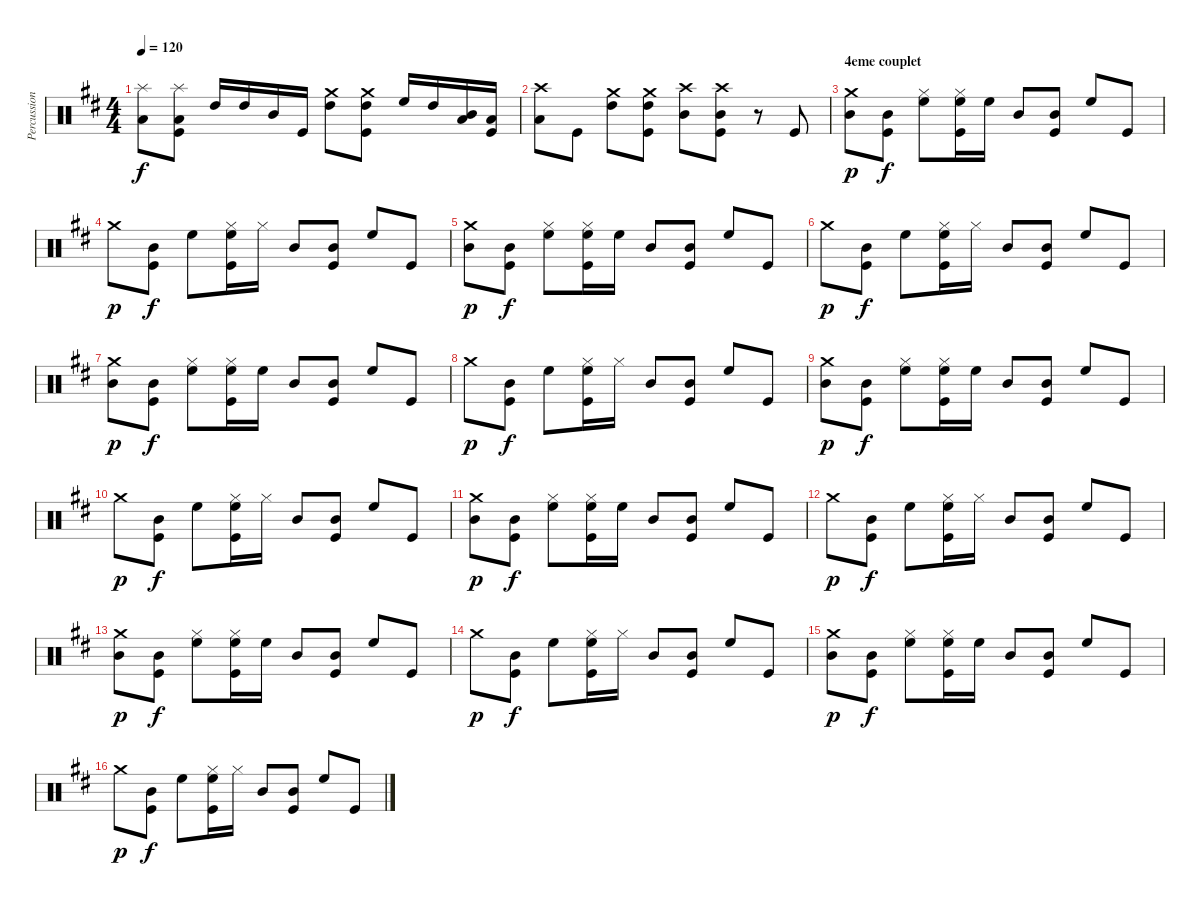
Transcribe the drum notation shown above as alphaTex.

\track ("Percussions" "Percussion") {instrument percussion}
\staff {score}
\articulation defaults
\ts (4 4)
\tempo 120
\clef neutral
\ks d
("Splash (hit)" "Low Floor Tom (hit)").8{dy f} ("Splash (hit)" "Low Tom (hit)" "Kick (hit)").8 "High Tom (hit)".16 "High Tom (hit)".16 "Mid Tom (hit)".16 "Kick (hit)".16 ("Crash medium (hit)" "High Tom (hit)").8 ("Crash medium (hit)" "High Tom (hit)" "Kick (hit)").8 "High Floor Tom (hit)".16 "High Tom (hit)".16 ("Low Floor Tom (hit)" "Mid Tom (hit)").16 ("Low Tom (hit)" "Kick (hit)").16 |
("Crash high (hit)" "Low Floor Tom (hit)").8 "Kick (hit)".8 ("Crash medium (hit)" "High Tom (hit)").8 ("Crash medium (hit)" "High Tom (hit)" "Kick (hit)").8 ("Crash high (hit)" "Mid Tom (hit)").8 ("Crash high (hit)" "Mid Tom (hit)" "Kick (hit)").8 r.8 "Kick (hit)".8 |
\section ("" "4eme couplet")
("Crash medium (hit)" "Mid Tom (hit)").8{dy p} ("Mid Tom (hit)" "Kick (hit)").8{dy f} ("Hi-Hat (closed)" "High Floor Tom (hit)").8 ("Hi-Hat (closed)" "High Floor Tom (hit)" "Kick (hit)").16 "High Floor Tom (hit)".16 "Mid Tom (hit)".8 ("Mid Tom (hit)" "Kick (hit)").8 "High Floor Tom (hit)".8 "Kick (hit)".8 |
"Crash medium (hit)".8{dy p} ("Mid Tom (hit)" "Kick (hit)").8{dy f} "High Floor Tom (hit)".8 ("Hi-Hat (closed)" "High Floor Tom (hit)" "Kick (hit)").16 "Hi-Hat (closed)".16 "Mid Tom (hit)".8 ("Mid Tom (hit)" "Kick (hit)").8 "High Floor Tom (hit)".8 "Kick (hit)".8 |
("Crash medium (hit)" "Mid Tom (hit)").8{dy p} ("Mid Tom (hit)" "Kick (hit)").8{dy f} ("Hi-Hat (closed)" "High Floor Tom (hit)").8 ("Hi-Hat (closed)" "High Floor Tom (hit)" "Kick (hit)").16 "High Floor Tom (hit)".16 "Mid Tom (hit)".8 ("Mid Tom (hit)" "Kick (hit)").8 "High Floor Tom (hit)".8 "Kick (hit)".8 |
"Crash medium (hit)".8{dy p} ("Mid Tom (hit)" "Kick (hit)").8{dy f} "High Floor Tom (hit)".8 ("Hi-Hat (closed)" "High Floor Tom (hit)" "Kick (hit)").16 "Hi-Hat (closed)".16 "Mid Tom (hit)".8 ("Mid Tom (hit)" "Kick (hit)").8 "High Floor Tom (hit)".8 "Kick (hit)".8 |
("Crash medium (hit)" "Mid Tom (hit)").8{dy p} ("Mid Tom (hit)" "Kick (hit)").8{dy f} ("Hi-Hat (closed)" "High Floor Tom (hit)").8 ("Hi-Hat (closed)" "High Floor Tom (hit)" "Kick (hit)").16 "High Floor Tom (hit)".16 "Mid Tom (hit)".8 ("Mid Tom (hit)" "Kick (hit)").8 "High Floor Tom (hit)".8 "Kick (hit)".8 |
"Crash medium (hit)".8{dy p} ("Mid Tom (hit)" "Kick (hit)").8{dy f} "High Floor Tom (hit)".8 ("Hi-Hat (closed)" "High Floor Tom (hit)" "Kick (hit)").16 "Hi-Hat (closed)".16 "Mid Tom (hit)".8 ("Mid Tom (hit)" "Kick (hit)").8 "High Floor Tom (hit)".8 "Kick (hit)".8 |
("Crash medium (hit)" "Mid Tom (hit)").8{dy p} ("Mid Tom (hit)" "Kick (hit)").8{dy f} ("Hi-Hat (closed)" "High Floor Tom (hit)").8 ("Hi-Hat (closed)" "High Floor Tom (hit)" "Kick (hit)").16 "High Floor Tom (hit)".16 "Mid Tom (hit)".8 ("Mid Tom (hit)" "Kick (hit)").8 "High Floor Tom (hit)".8 "Kick (hit)".8 |
"Crash medium (hit)".8{dy p} ("Mid Tom (hit)" "Kick (hit)").8{dy f} "High Floor Tom (hit)".8 ("Hi-Hat (closed)" "High Floor Tom (hit)" "Kick (hit)").16 "Hi-Hat (closed)".16 "Mid Tom (hit)".8 ("Mid Tom (hit)" "Kick (hit)").8 "High Floor Tom (hit)".8 "Kick (hit)".8 |
("Crash medium (hit)" "Mid Tom (hit)").8{dy p} ("Mid Tom (hit)" "Kick (hit)").8{dy f} ("Hi-Hat (closed)" "High Floor Tom (hit)").8 ("Hi-Hat (closed)" "High Floor Tom (hit)" "Kick (hit)").16 "High Floor Tom (hit)".16 "Mid Tom (hit)".8 ("Mid Tom (hit)" "Kick (hit)").8 "High Floor Tom (hit)".8 "Kick (hit)".8 |
"Crash medium (hit)".8{dy p} ("Mid Tom (hit)" "Kick (hit)").8{dy f} "High Floor Tom (hit)".8 ("Hi-Hat (closed)" "High Floor Tom (hit)" "Kick (hit)").16 "Hi-Hat (closed)".16 "Mid Tom (hit)".8 ("Mid Tom (hit)" "Kick (hit)").8 "High Floor Tom (hit)".8 "Kick (hit)".8 |
("Crash medium (hit)" "Mid Tom (hit)").8{dy p} ("Mid Tom (hit)" "Kick (hit)").8{dy f} ("Hi-Hat (closed)" "High Floor Tom (hit)").8 ("Hi-Hat (closed)" "High Floor Tom (hit)" "Kick (hit)").16 "High Floor Tom (hit)".16 "Mid Tom (hit)".8 ("Mid Tom (hit)" "Kick (hit)").8 "High Floor Tom (hit)".8 "Kick (hit)".8 |
"Crash medium (hit)".8{dy p} ("Mid Tom (hit)" "Kick (hit)").8{dy f} "High Floor Tom (hit)".8 ("Hi-Hat (closed)" "High Floor Tom (hit)" "Kick (hit)").16 "Hi-Hat (closed)".16 "Mid Tom (hit)".8 ("Mid Tom (hit)" "Kick (hit)").8 "High Floor Tom (hit)".8 "Kick (hit)".8 |
("Crash medium (hit)" "Mid Tom (hit)").8{dy p} ("Mid Tom (hit)" "Kick (hit)").8{dy f} ("Hi-Hat (closed)" "High Floor Tom (hit)").8 ("Hi-Hat (closed)" "High Floor Tom (hit)" "Kick (hit)").16 "High Floor Tom (hit)".16 "Mid Tom (hit)".8 ("Mid Tom (hit)" "Kick (hit)").8 "High Floor Tom (hit)".8 "Kick (hit)".8 |
"Crash medium (hit)".8{dy p} ("Mid Tom (hit)" "Kick (hit)").8{dy f} "High Floor Tom (hit)".8 ("Hi-Hat (closed)" "High Floor Tom (hit)" "Kick (hit)").16 "Hi-Hat (closed)".16 "Mid Tom (hit)".8 ("Mid Tom (hit)" "Kick (hit)").8 "High Floor Tom (hit)".8 "Kick (hit)".8
